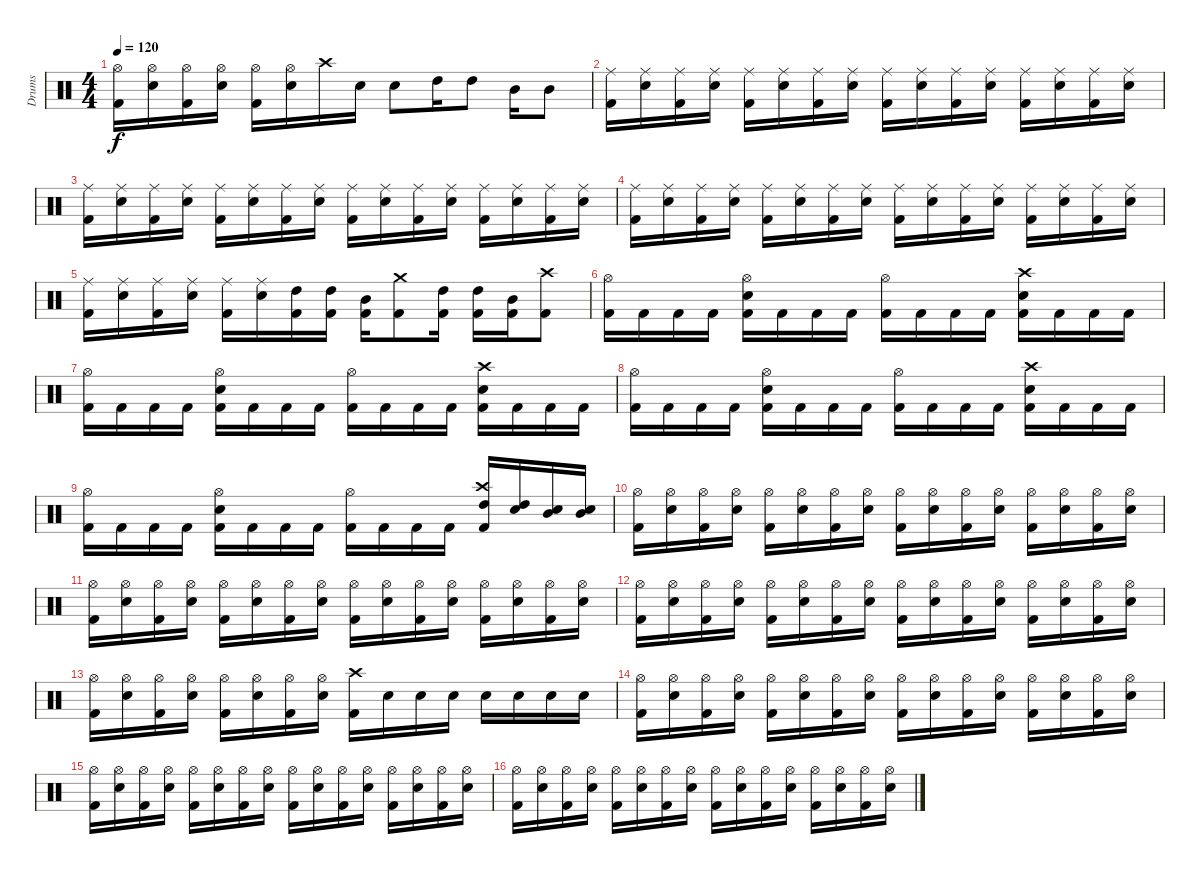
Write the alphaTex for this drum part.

\track ("Drums" "Drums") {instrument percussion}
\staff {score}
\articulation defaults
\ts (4 4)
\tempo 120
\clef neutral
\ks c
("Hi-Hat (open)" "Kick (hit) 2").16{dy f} ("Hi-Hat (open)" "Electric Snare (hit)").16 ("Hi-Hat (open)" "Kick (hit) 2").16 ("Hi-Hat (open)" "Electric Snare (hit)").16 ("Hi-Hat (open)" "Kick (hit) 2").16 ("Hi-Hat (open)" "Electric Snare (hit)").16 "Crash high (hit)".16 "Electric Snare (hit)".16 "Electric Snare (hit)".8 "High Tom (hit)".16 "High Tom (hit)".8 "Mid Tom (hit)".16 "Mid Tom (hit)".8 |
("Ride (middle)" "Kick (hit) 2").16 ("Ride (middle)" "Electric Snare (hit)").16 ("Ride (middle)" "Kick (hit) 2").16 ("Ride (middle)" "Electric Snare (hit)").16 ("Ride (middle)" "Kick (hit) 2").16 ("Ride (middle)" "Electric Snare (hit)").16 ("Ride (middle)" "Kick (hit) 2").16 ("Ride (middle)" "Electric Snare (hit)").16 ("Ride (middle)" "Kick (hit) 2").16 ("Ride (middle)" "Electric Snare (hit)").16 ("Ride (middle)" "Kick (hit) 2").16 ("Ride (middle)" "Electric Snare (hit)").16 ("Ride (middle)" "Kick (hit) 2").16 ("Ride (middle)" "Electric Snare (hit)").16 ("Ride (middle)" "Kick (hit) 2").16 ("Ride (middle)" "Electric Snare (hit)").16 |
("Ride (middle)" "Kick (hit) 2").16 ("Ride (middle)" "Electric Snare (hit)").16 ("Ride (middle)" "Kick (hit) 2").16 ("Ride (middle)" "Electric Snare (hit)").16 ("Ride (middle)" "Kick (hit) 2").16 ("Ride (middle)" "Electric Snare (hit)").16 ("Ride (middle)" "Kick (hit) 2").16 ("Ride (middle)" "Electric Snare (hit)").16 ("Ride (middle)" "Kick (hit) 2").16 ("Ride (middle)" "Electric Snare (hit)").16 ("Ride (middle)" "Kick (hit) 2").16 ("Ride (middle)" "Electric Snare (hit)").16 ("Ride (middle)" "Kick (hit) 2").16 ("Ride (middle)" "Electric Snare (hit)").16 ("Ride (middle)" "Kick (hit) 2").16 ("Ride (middle)" "Electric Snare (hit)").16 |
("Ride (middle)" "Kick (hit) 2").16 ("Ride (middle)" "Electric Snare (hit)").16 ("Ride (middle)" "Kick (hit) 2").16 ("Ride (middle)" "Electric Snare (hit)").16 ("Ride (middle)" "Kick (hit) 2").16 ("Ride (middle)" "Electric Snare (hit)").16 ("Ride (middle)" "Kick (hit) 2").16 ("Ride (middle)" "Electric Snare (hit)").16 ("Ride (middle)" "Kick (hit) 2").16 ("Ride (middle)" "Electric Snare (hit)").16 ("Ride (middle)" "Kick (hit) 2").16 ("Ride (middle)" "Electric Snare (hit)").16 ("Ride (middle)" "Kick (hit) 2").16 ("Ride (middle)" "Electric Snare (hit)").16 ("Ride (middle)" "Kick (hit) 2").16 ("Ride (middle)" "Electric Snare (hit)").16 |
("Ride (middle)" "Kick (hit) 2").16 ("Ride (middle)" "Electric Snare (hit)").16 ("Ride (middle)" "Kick (hit) 2").16 ("Ride (middle)" "Electric Snare (hit)").16 ("Ride (middle)" "Kick (hit) 2").16 ("Ride (middle)" "Electric Snare (hit)").16 ("High Tom (hit)" "Kick (hit) 2").16 ("High Tom (hit)" "Kick (hit) 2").16 ("Mid Tom (hit)" "Kick (hit) 2").16 ("Crash medium (hit)" "Kick (hit) 2").8 ("High Tom (hit)" "Kick (hit) 2").16 ("High Tom (hit)" "Kick (hit) 2").16 ("Mid Tom (hit)" "Kick (hit) 2").16 ("Crash high (hit)" "Kick (hit) 2").8 |
("Hi-Hat (open)" "Kick (hit) 2").16 "Kick (hit) 2".16 "Kick (hit) 2".16 "Kick (hit) 2".16 ("Hi-Hat (open)" "Electric Snare (hit)" "Kick (hit) 2").16 "Kick (hit) 2".16 "Kick (hit) 2".16 "Kick (hit) 2".16 ("Hi-Hat (open)" "Kick (hit) 2").16 "Kick (hit) 2".16 "Kick (hit) 2".16 "Kick (hit) 2".16 ("Crash high (hit)" "Electric Snare (hit)" "Kick (hit) 2").16 "Kick (hit) 2".16 "Kick (hit) 2".16 "Kick (hit) 2".16 |
("Hi-Hat (open)" "Kick (hit) 2").16 "Kick (hit) 2".16 "Kick (hit) 2".16 "Kick (hit) 2".16 ("Hi-Hat (open)" "Electric Snare (hit)" "Kick (hit) 2").16 "Kick (hit) 2".16 "Kick (hit) 2".16 "Kick (hit) 2".16 ("Hi-Hat (open)" "Kick (hit) 2").16 "Kick (hit) 2".16 "Kick (hit) 2".16 "Kick (hit) 2".16 ("Crash high (hit)" "Electric Snare (hit)" "Kick (hit) 2").16 "Kick (hit) 2".16 "Kick (hit) 2".16 "Kick (hit) 2".16 |
("Hi-Hat (open)" "Kick (hit) 2").16 "Kick (hit) 2".16 "Kick (hit) 2".16 "Kick (hit) 2".16 ("Hi-Hat (open)" "Electric Snare (hit)" "Kick (hit) 2").16 "Kick (hit) 2".16 "Kick (hit) 2".16 "Kick (hit) 2".16 ("Hi-Hat (open)" "Kick (hit) 2").16 "Kick (hit) 2".16 "Kick (hit) 2".16 "Kick (hit) 2".16 ("Crash high (hit)" "Electric Snare (hit)" "Kick (hit) 2").16 "Kick (hit) 2".16 "Kick (hit) 2".16 "Kick (hit) 2".16 |
("Hi-Hat (open)" "Kick (hit) 2").16 "Kick (hit) 2".16 "Kick (hit) 2".16 "Kick (hit) 2".16 ("Hi-Hat (open)" "Electric Snare (hit)" "Kick (hit) 2").16 "Kick (hit) 2".16 "Kick (hit) 2".16 "Kick (hit) 2".16 ("Hi-Hat (open)" "Kick (hit) 2").16 "Kick (hit) 2".16 "Kick (hit) 2".16 "Kick (hit) 2".16 ("Crash high (hit)" "High Tom (hit)" "Kick (hit) 2").16 ("Electric Snare (hit)" "High Tom (hit)").16 ("Electric Snare (hit)" "Mid Tom (hit)").16 ("Electric Snare (hit)" "Mid Tom (hit)").16 |
("Hi-Hat (open)" "Kick (hit) 2").16 ("Hi-Hat (open)" "Electric Snare (hit)").16 ("Hi-Hat (open)" "Kick (hit) 2").16 ("Hi-Hat (open)" "Electric Snare (hit)").16 ("Hi-Hat (open)" "Kick (hit) 2").16 ("Hi-Hat (open)" "Electric Snare (hit)").16 ("Hi-Hat (open)" "Kick (hit) 2").16 ("Hi-Hat (open)" "Electric Snare (hit)").16 ("Hi-Hat (open)" "Kick (hit) 2").16 ("Hi-Hat (open)" "Electric Snare (hit)").16 ("Hi-Hat (open)" "Kick (hit) 2").16 ("Hi-Hat (open)" "Electric Snare (hit)").16 ("Hi-Hat (open)" "Kick (hit) 2").16 ("Hi-Hat (open)" "Electric Snare (hit)").16 ("Hi-Hat (open)" "Kick (hit) 2").16 ("Hi-Hat (open)" "Electric Snare (hit)").16 |
("Hi-Hat (open)" "Kick (hit) 2").16 ("Hi-Hat (open)" "Electric Snare (hit)").16 ("Hi-Hat (open)" "Kick (hit) 2").16 ("Hi-Hat (open)" "Electric Snare (hit)").16 ("Hi-Hat (open)" "Kick (hit) 2").16 ("Hi-Hat (open)" "Electric Snare (hit)").16 ("Hi-Hat (open)" "Kick (hit) 2").16 ("Hi-Hat (open)" "Electric Snare (hit)").16 ("Hi-Hat (open)" "Kick (hit) 2").16 ("Hi-Hat (open)" "Electric Snare (hit)").16 ("Hi-Hat (open)" "Kick (hit) 2").16 ("Hi-Hat (open)" "Electric Snare (hit)").16 ("Hi-Hat (open)" "Kick (hit) 2").16 ("Hi-Hat (open)" "Electric Snare (hit)").16 ("Hi-Hat (open)" "Kick (hit) 2").16 ("Hi-Hat (open)" "Electric Snare (hit)").16 |
("Hi-Hat (open)" "Kick (hit) 2").16 ("Hi-Hat (open)" "Electric Snare (hit)").16 ("Hi-Hat (open)" "Kick (hit) 2").16 ("Hi-Hat (open)" "Electric Snare (hit)").16 ("Hi-Hat (open)" "Kick (hit) 2").16 ("Hi-Hat (open)" "Electric Snare (hit)").16 ("Hi-Hat (open)" "Kick (hit) 2").16 ("Hi-Hat (open)" "Electric Snare (hit)").16 ("Hi-Hat (open)" "Kick (hit) 2").16 ("Hi-Hat (open)" "Electric Snare (hit)").16 ("Hi-Hat (open)" "Kick (hit) 2").16 ("Hi-Hat (open)" "Electric Snare (hit)").16 ("Hi-Hat (open)" "Kick (hit) 2").16 ("Hi-Hat (open)" "Electric Snare (hit)").16 ("Hi-Hat (open)" "Kick (hit) 2").16 ("Hi-Hat (open)" "Electric Snare (hit)").16 |
("Hi-Hat (open)" "Kick (hit) 2").16 ("Hi-Hat (open)" "Electric Snare (hit)").16 ("Hi-Hat (open)" "Kick (hit) 2").16 ("Hi-Hat (open)" "Electric Snare (hit)").16 ("Hi-Hat (open)" "Kick (hit) 2").16 ("Hi-Hat (open)" "Electric Snare (hit)").16 ("Hi-Hat (open)" "Kick (hit) 2").16 ("Hi-Hat (open)" "Electric Snare (hit)").16 ("Crash high (hit)" "Kick (hit) 2").16 "Electric Snare (hit)".16 "Electric Snare (hit)".16 "Electric Snare (hit)".16 "Electric Snare (hit)".16 "Electric Snare (hit)".16 "Electric Snare (hit)".16 "Electric Snare (hit)".16 |
("Hi-Hat (open)" "Kick (hit) 2").16 ("Hi-Hat (open)" "Electric Snare (hit)").16 ("Hi-Hat (open)" "Kick (hit) 2").16 ("Hi-Hat (open)" "Electric Snare (hit)").16 ("Hi-Hat (open)" "Kick (hit) 2").16 ("Hi-Hat (open)" "Electric Snare (hit)").16 ("Hi-Hat (open)" "Kick (hit) 2").16 ("Hi-Hat (open)" "Electric Snare (hit)").16 ("Hi-Hat (open)" "Kick (hit) 2").16 ("Hi-Hat (open)" "Electric Snare (hit)").16 ("Hi-Hat (open)" "Kick (hit) 2").16 ("Hi-Hat (open)" "Electric Snare (hit)").16 ("Hi-Hat (open)" "Kick (hit) 2").16 ("Hi-Hat (open)" "Electric Snare (hit)").16 ("Hi-Hat (open)" "Kick (hit) 2").16 ("Hi-Hat (open)" "Electric Snare (hit)").16 |
("Hi-Hat (open)" "Kick (hit) 2").16 ("Hi-Hat (open)" "Electric Snare (hit)").16 ("Hi-Hat (open)" "Kick (hit) 2").16 ("Hi-Hat (open)" "Electric Snare (hit)").16 ("Hi-Hat (open)" "Kick (hit) 2").16 ("Hi-Hat (open)" "Electric Snare (hit)").16 ("Hi-Hat (open)" "Kick (hit) 2").16 ("Hi-Hat (open)" "Electric Snare (hit)").16 ("Hi-Hat (open)" "Kick (hit) 2").16 ("Hi-Hat (open)" "Electric Snare (hit)").16 ("Hi-Hat (open)" "Kick (hit) 2").16 ("Hi-Hat (open)" "Electric Snare (hit)").16 ("Hi-Hat (open)" "Kick (hit) 2").16 ("Hi-Hat (open)" "Electric Snare (hit)").16 ("Hi-Hat (open)" "Kick (hit) 2").16 ("Hi-Hat (open)" "Electric Snare (hit)").16 |
("Hi-Hat (open)" "Kick (hit) 2").16 ("Hi-Hat (open)" "Electric Snare (hit)").16 ("Hi-Hat (open)" "Kick (hit) 2").16 ("Hi-Hat (open)" "Electric Snare (hit)").16 ("Hi-Hat (open)" "Kick (hit) 2").16 ("Hi-Hat (open)" "Electric Snare (hit)").16 ("Hi-Hat (open)" "Kick (hit) 2").16 ("Hi-Hat (open)" "Electric Snare (hit)").16 ("Hi-Hat (open)" "Kick (hit) 2").16 ("Hi-Hat (open)" "Electric Snare (hit)").16 ("Hi-Hat (open)" "Kick (hit) 2").16 ("Hi-Hat (open)" "Electric Snare (hit)").16 ("Hi-Hat (open)" "Kick (hit) 2").16 ("Hi-Hat (open)" "Electric Snare (hit)").16 ("Hi-Hat (open)" "Kick (hit) 2").16 ("Hi-Hat (open)" "Electric Snare (hit)").16
